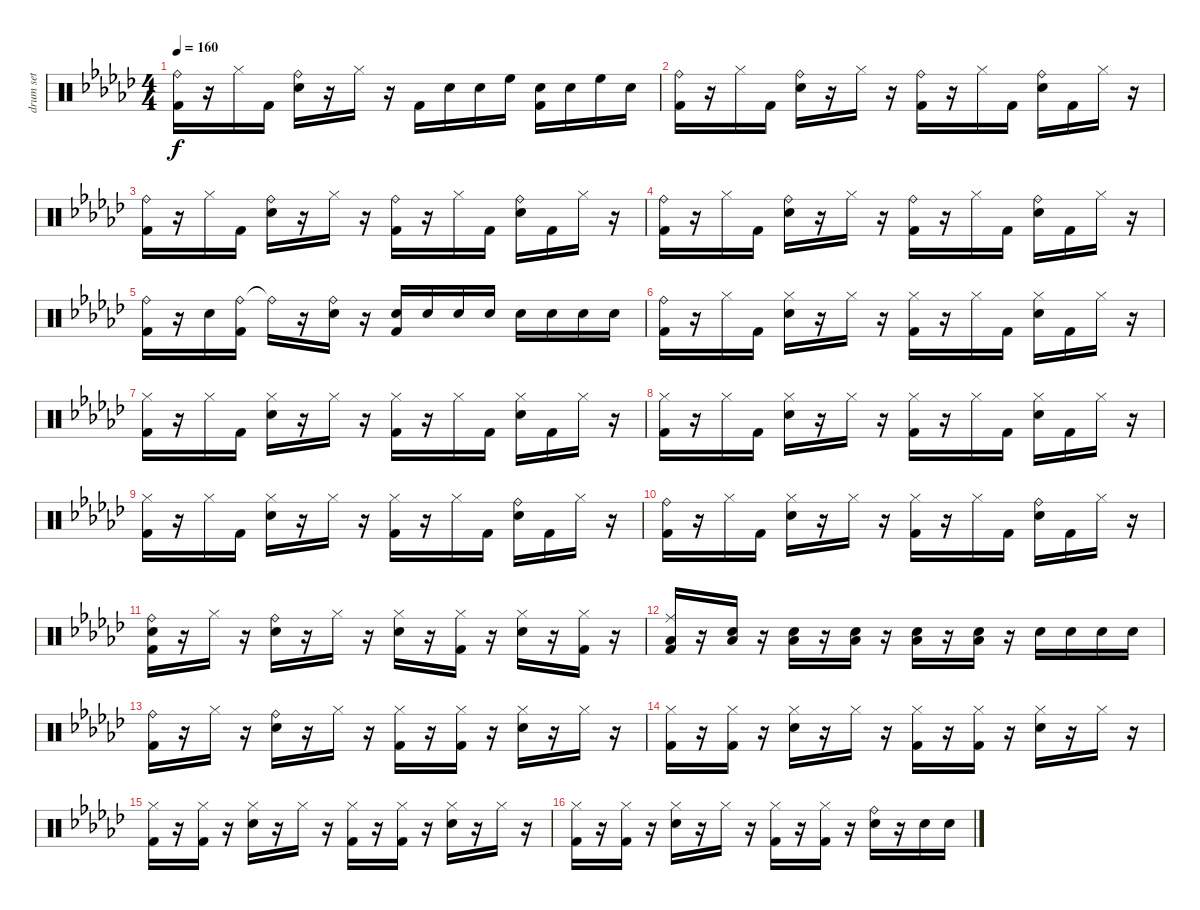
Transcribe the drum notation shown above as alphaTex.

\track ("drum set" "drum set") {instrument percussion}
\staff {score}
\articulation defaults
\ts (4 4)
\tempo 160
\clef neutral
\ks gb
("Ride (bell)" "Kick (hit) 2").16{dy f} r.16 "Hi-Hat (closed)".16 "Kick (hit) 2".16 ("Ride (bell)" "Snare (hit) 2").16 r.16 "Hi-Hat (closed)".16 r.16 "Kick (hit) 2".16 "Snare (hit) 2".16 "Snare (hit) 2".16 "High Floor Tom (hit)".16 ("Kick (hit) 2" "Snare (hit) 2").16 "Snare (hit) 2".16 "High Floor Tom (hit)".16 "Snare (hit) 2".16 |
("Ride (bell)" "Kick (hit) 2").16 r.16 "Hi-Hat (closed)".16 "Kick (hit) 2".16 ("Ride (bell)" "Snare (hit) 2").16 r.16 "Hi-Hat (closed)".16 r.16 ("Ride (bell)" "Kick (hit) 2").16 r.16 "Hi-Hat (closed)".16 "Kick (hit) 2".16 ("Ride (bell)" "Snare (hit) 2").16 "Kick (hit) 2".16 "Hi-Hat (closed)".16 r.16 |
("Ride (bell)" "Kick (hit) 2").16 r.16 "Hi-Hat (closed)".16 "Kick (hit) 2".16 ("Ride (bell)" "Snare (hit) 2").16 r.16 "Hi-Hat (closed)".16 r.16 ("Ride (bell)" "Kick (hit) 2").16 r.16 "Hi-Hat (closed)".16 "Kick (hit) 2".16 ("Ride (bell)" "Snare (hit) 2").16 "Kick (hit) 2".16 "Hi-Hat (closed)".16 r.16 |
("Ride (bell)" "Kick (hit) 2").16 r.16 "Hi-Hat (closed)".16 "Kick (hit) 2".16 ("Ride (bell)" "Snare (hit) 2").16 r.16 "Hi-Hat (closed)".16 r.16 ("Ride (bell)" "Kick (hit) 2").16 r.16 "Hi-Hat (closed)".16 "Kick (hit) 2".16 ("Ride (bell)" "Snare (hit) 2").16 "Kick (hit) 2".16 "Hi-Hat (closed)".16 r.16 |
("Ride (bell)" "Kick (hit) 2").16 r.16 "Snare (hit) 2".16 ("Ride (bell)" "Kick (hit) 2").16 "Ride (bell)"{t}.16 r.16 ("Ride (bell)" "Snare (hit) 2").16 r.16 ("Snare (hit) 2" "Kick (hit) 2").16 "Snare (hit) 2".16 "Snare (hit) 2".16 "Snare (hit) 2".16 "Snare (hit) 2".16 "Snare (hit) 2".16 "Snare (hit) 2".16 "Snare (hit) 2".16 |
("Ride (bell)" "Kick (hit) 2").16 r.16 "Hi-Hat (closed)".16 "Kick (hit) 2".16 ("Hi-Hat (closed)" "Snare (hit) 2").16 r.16 "Hi-Hat (closed)".16 r.16 ("Hi-Hat (closed)" "Kick (hit) 2").16 r.16 "Hi-Hat (closed)".16 "Kick (hit) 2".16 ("Hi-Hat (closed)" "Snare (hit) 2").16 "Kick (hit) 2".16 "Hi-Hat (closed)".16 r.16 |
("Hi-Hat (closed)" "Kick (hit) 2").16 r.16 "Hi-Hat (closed)".16 "Kick (hit) 2".16 ("Hi-Hat (closed)" "Snare (hit) 2").16 r.16 "Hi-Hat (closed)".16 r.16 ("Hi-Hat (closed)" "Kick (hit) 2").16 r.16 "Hi-Hat (closed)".16 "Kick (hit) 2".16 ("Hi-Hat (closed)" "Snare (hit) 2").16 "Kick (hit) 2".16 "Hi-Hat (closed)".16 r.16 |
("Hi-Hat (closed)" "Kick (hit) 2").16 r.16 "Hi-Hat (closed)".16 "Kick (hit) 2".16 ("Hi-Hat (closed)" "Snare (hit) 2").16 r.16 "Hi-Hat (closed)".16 r.16 ("Hi-Hat (closed)" "Kick (hit) 2").16 r.16 "Hi-Hat (closed)".16 "Kick (hit) 2".16 ("Hi-Hat (closed)" "Snare (hit) 2").16 "Kick (hit) 2".16 "Hi-Hat (closed)".16 r.16 |
("Hi-Hat (closed)" "Kick (hit) 2").16 r.16 "Hi-Hat (closed)".16 "Kick (hit) 2".16 ("Hi-Hat (closed)" "Snare (hit) 2").16 r.16 "Hi-Hat (closed)".16 r.16 ("Hi-Hat (closed)" "Kick (hit) 2").16 r.16 "Hi-Hat (closed)".16 "Kick (hit) 2".16 ("Ride (bell)" "Snare (hit) 2").16 "Kick (hit) 2".16 "Hi-Hat (closed)".16 r.16 |
("Ride (bell)" "Kick (hit) 2").16 r.16 "Hi-Hat (closed)".16 "Kick (hit) 2".16 ("Hi-Hat (closed)" "Snare (hit) 2").16 r.16 "Hi-Hat (closed)".16 r.16 ("Hi-Hat (closed)" "Kick (hit) 2").16 r.16 "Hi-Hat (closed)".16 "Kick (hit) 2".16 ("Ride (bell)" "Snare (hit) 2").16 "Kick (hit) 2".16 "Hi-Hat (closed)".16 r.16 |
("Ride (bell)" "Snare (hit) 2" "Kick (hit) 2").16 r.16 "Hi-Hat (closed)".16 r.16 ("Ride (bell)" "Snare (hit) 2").16 r.16 "Hi-Hat (closed)".16 r.16 ("Hi-Hat (closed)" "Snare (hit) 2").16 r.16 ("Hi-Hat (closed)" "Kick (hit) 2").16 r.16 ("Hi-Hat (closed)" "Snare (hit) 2").16 r.16 ("Hi-Hat (closed)" "Kick (hit) 2").16 r.16 |
("Ride (middle)" "Kick (hit) 2" "Low Floor Tom (hit)").16 r.16 ("Low Floor Tom (hit)" "Snare (hit) 2").16 r.16 ("Low Floor Tom (hit)" "Snare (hit) 2").16 r.16 ("Low Floor Tom (hit)" "Snare (hit) 2").16 r.16 ("Low Floor Tom (hit)" "Snare (hit) 2").16 r.16 ("Low Floor Tom (hit)" "Snare (hit) 2").16 r.16 "Snare (hit) 2".16 "Snare (hit) 2".16 "Snare (hit) 2".16 "Snare (hit) 2".16 |
("Ride (bell)" "Kick (hit) 2").16 r.16 "Hi-Hat (closed)".16 r.16 ("Ride (bell)" "Snare (hit) 2").16 r.16 "Hi-Hat (closed)".16 r.16 ("Hi-Hat (closed)" "Kick (hit) 2").16 r.16 ("Hi-Hat (closed)" "Kick (hit) 2").16 r.16 ("Hi-Hat (closed)" "Snare (hit) 2").16 r.16 "Hi-Hat (closed)".16 r.16 |
("Hi-Hat (closed)" "Kick (hit) 2").16 r.16 ("Hi-Hat (closed)" "Kick (hit) 2").16 r.16 ("Hi-Hat (closed)" "Snare (hit) 2").16 r.16 "Hi-Hat (closed)".16 r.16 ("Hi-Hat (closed)" "Kick (hit) 2").16 r.16 ("Hi-Hat (closed)" "Kick (hit) 2").16 r.16 ("Hi-Hat (closed)" "Snare (hit) 2").16 r.16 "Hi-Hat (closed)".16 r.16 |
("Hi-Hat (closed)" "Kick (hit) 2").16 r.16 ("Hi-Hat (closed)" "Kick (hit) 2").16 r.16 ("Hi-Hat (closed)" "Snare (hit) 2").16 r.16 "Hi-Hat (closed)".16 r.16 ("Hi-Hat (closed)" "Kick (hit) 2").16 r.16 ("Hi-Hat (closed)" "Kick (hit) 2").16 r.16 ("Hi-Hat (closed)" "Snare (hit) 2").16 r.16 "Hi-Hat (closed)".16 r.16 |
("Hi-Hat (closed)" "Kick (hit) 2").16 r.16 ("Hi-Hat (closed)" "Kick (hit) 2").16 r.16 ("Hi-Hat (closed)" "Snare (hit) 2").16 r.16 "Hi-Hat (closed)".16 r.16 ("Hi-Hat (closed)" "Kick (hit) 2").16 r.16 ("Hi-Hat (closed)" "Kick (hit) 2").16 r.16 ("Ride (bell)" "Snare (hit) 2").16 r.16 "Snare (hit) 2".16 "Snare (hit) 2".16
